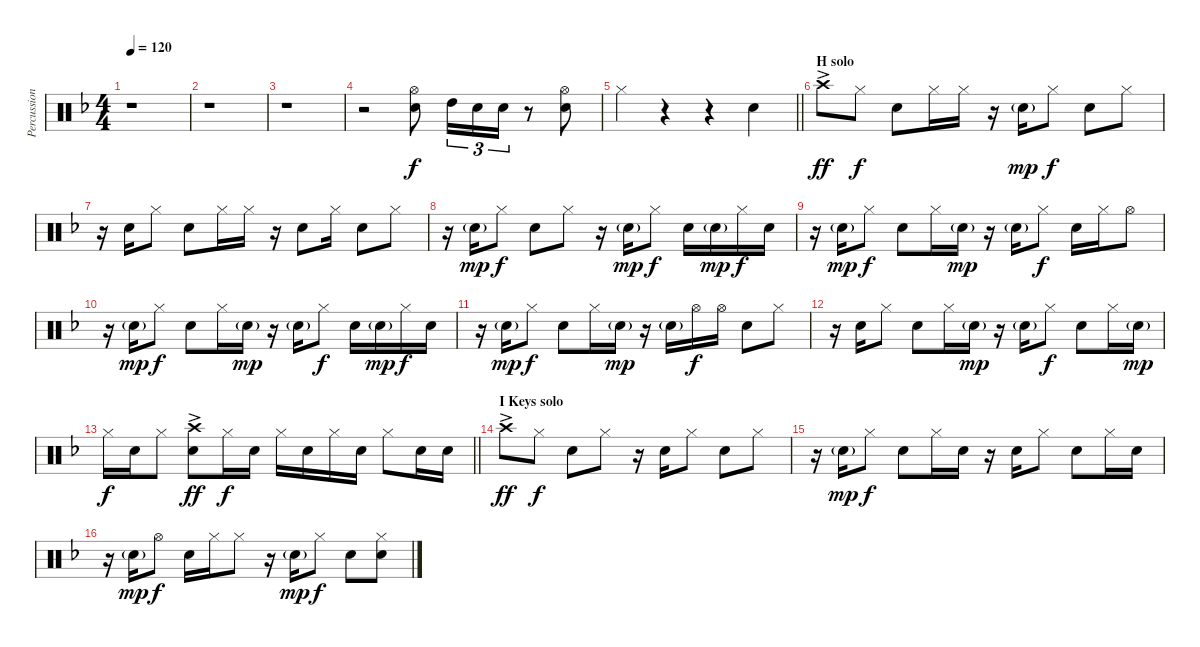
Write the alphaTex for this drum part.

\track ("Percussion hand" "Percussion") {instrument percussion}
\staff {score}
\articulation defaults
\ts (4 4)
\tempo 120
\clef neutral
\ks f
r.1{dy f} |
r.1 |
r.1 |
r.2 ("Hi-Hat (open)" "Snare (hit) 2").8 "High Tom (hit)".16{tu (3 2)} "Snare (hit) 2".16{tu (3 2)} "Snare (hit) 2".16{tu (3 2)} r.8 ("Hi-Hat (open)" "Snare (hit) 2").8 |
\barLineRight lightlight "Hi-Hat (closed)".4
r.4 r.4 "Snare (hit) 2".4 |
\section ("" "H solo")
"Crash high (hit)"{ac}.8{dy ff} "Hi-Hat (closed)".8{dy f} "Snare (hit) 2".8 "Hi-Hat (closed)".16 "Hi-Hat (closed)".16 r.16 "Snare (hit) 2"{g}.16{dy mp} "Hi-Hat (closed)".8{dy f} "Snare (hit) 2".8 "Hi-Hat (closed)".8 |
r.16 "Snare (hit) 2".16 "Hi-Hat (closed)".8 "Snare (hit) 2".8 "Hi-Hat (closed)".16 "Hi-Hat (closed)".16 r.16 "Snare (hit) 2".8 "Hi-Hat (closed)".16 "Snare (hit) 2".8 "Hi-Hat (closed)".8 |
r.16 "Snare (hit) 2"{g}.16{dy mp} "Hi-Hat (closed)".8{dy f} "Snare (hit) 2".8 "Hi-Hat (closed)".8 r.16 "Snare (hit) 2"{g}.16{dy mp} "Hi-Hat (closed)".8{dy f} "Snare (hit) 2".16 "Snare (hit) 2"{g}.16{dy mp} "Hi-Hat (closed)".16{dy f} "Snare (hit) 2".16 |
r.16 "Snare (hit) 2"{g}.16{dy mp} "Hi-Hat (closed)".8{dy f} "Snare (hit) 2".8 "Hi-Hat (closed)".16 "Snare (hit) 2"{g}.16{dy mp} r.16 "Snare (hit) 2"{g}.16 "Hi-Hat (closed)".8{dy f} "Snare (hit) 2".16 "Hi-Hat (closed)".16 "Hi-Hat (open)".8 |
r.16 "Snare (hit) 2"{g}.16{dy mp} "Hi-Hat (closed)".8{dy f} "Snare (hit) 2".8 "Hi-Hat (closed)".16 "Snare (hit) 2"{g}.16{dy mp} r.16 "Snare (hit) 2"{g}.16 "Hi-Hat (closed)".8{dy f} "Snare (hit) 2".16 "Snare (hit) 2"{g}.16{dy mp} "Hi-Hat (closed)".16{dy f} "Snare (hit) 2".16 |
r.16 "Snare (hit) 2"{g}.16{dy mp} "Hi-Hat (closed)".8{dy f} "Snare (hit) 2".8 "Hi-Hat (closed)".16 "Snare (hit) 2"{g}.16{dy mp} r.16 "Snare (hit) 2"{g}.16 "Hi-Hat (open)".16{dy f} "Hi-Hat (open)".16 "Snare (hit) 2".8 "Hi-Hat (closed)".8 |
r.16 "Snare (hit) 2".16 "Hi-Hat (closed)".8 "Snare (hit) 2".8 "Hi-Hat (closed)".16 "Snare (hit) 2"{g}.16{dy mp} r.16 "Snare (hit) 2"{g}.16 "Hi-Hat (closed)".8{dy f} "Snare (hit) 2".8 "Hi-Hat (closed)".16 "Snare (hit) 2"{g}.16{dy mp} |
\barLineRight lightlight "Hi-Hat (closed)".16{dy f} "Snare (hit) 2".16 "Hi-Hat (closed)".8
("Crash high (hit)"{ac} "Snare (hit) 2").8{dy ff} "Hi-Hat (closed)".16{dy f} "Snare (hit) 2".16 "Hi-Hat (closed)".16 "Snare (hit) 2".16 "Hi-Hat (closed)".16 "Snare (hit) 2".16 "Hi-Hat (closed)".8 "Snare (hit) 2".16 "Snare (hit) 2".16 |
\section ("" "I Keys solo")
"Crash high (hit)"{ac}.8{dy ff} "Hi-Hat (closed)".8{dy f} "Snare (hit) 2".8 "Hi-Hat (closed)".8 r.16 "Snare (hit) 2".16 "Hi-Hat (closed)".8 "Snare (hit) 2".8 "Hi-Hat (closed)".8 |
r.16 "Snare (hit) 2"{g}.16{dy mp} "Hi-Hat (closed)".8{dy f} "Snare (hit) 2".8 "Hi-Hat (closed)".16 "Snare (hit) 2".16 r.16 "Snare (hit) 2".16 "Hi-Hat (closed)".8 "Snare (hit) 2".8 "Hi-Hat (closed)".16 "Snare (hit) 2".16 |
r.16 "Snare (hit) 2"{g}.16{dy mp} "Hi-Hat (open)".8{dy f} "Snare (hit) 2".16 "Hi-Hat (closed)".16 "Hi-Hat (closed)".8 r.16 "Snare (hit) 2"{g}.16{dy mp} "Hi-Hat (closed)".8{dy f} "Snare (hit) 2".8 ("Snare (hit) 2" "Hi-Hat (closed)").8
